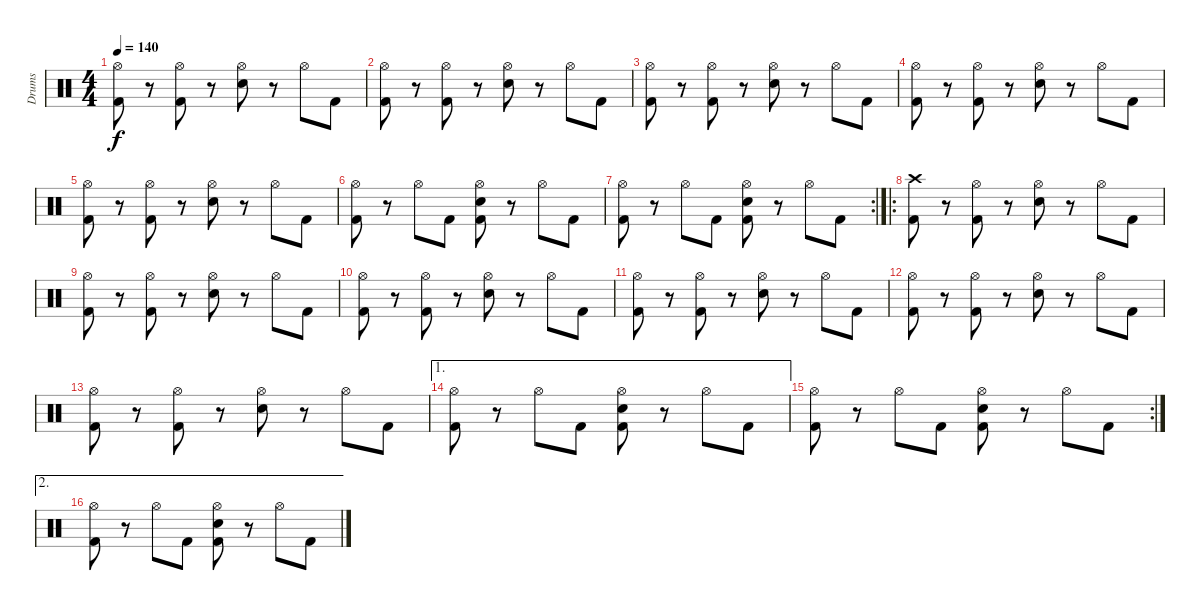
\track ("Drums" "Drums") {instrument percussion}
\staff {score}
\articulation defaults
\ts (4 4)
\tempo 140
\clef neutral
\ks c
("Hi-Hat (open)" "Kick (hit) 2").8{dy f} r.8 ("Hi-Hat (open)" "Kick (hit) 2").8 r.8 ("Hi-Hat (open)" "Snare (hit) 2").8 r.8 "Hi-Hat (open)".8 "Kick (hit) 2".8 |
("Hi-Hat (open)" "Kick (hit) 2").8 r.8 ("Hi-Hat (open)" "Kick (hit) 2").8 r.8 ("Hi-Hat (open)" "Snare (hit) 2").8 r.8 "Hi-Hat (open)".8 "Kick (hit) 2".8 |
("Hi-Hat (open)" "Kick (hit) 2").8 r.8 ("Hi-Hat (open)" "Kick (hit) 2").8 r.8 ("Hi-Hat (open)" "Snare (hit) 2").8 r.8 "Hi-Hat (open)".8 "Kick (hit) 2".8 |
("Hi-Hat (open)" "Kick (hit) 2").8 r.8 ("Hi-Hat (open)" "Kick (hit) 2").8 r.8 ("Hi-Hat (open)" "Snare (hit) 2").8 r.8 "Hi-Hat (open)".8 "Kick (hit) 2".8 |
("Hi-Hat (open)" "Kick (hit) 2").8 r.8 ("Hi-Hat (open)" "Kick (hit) 2").8 r.8 ("Hi-Hat (open)" "Snare (hit) 2").8 r.8 "Hi-Hat (open)".8 "Kick (hit) 2".8 |
("Hi-Hat (open)" "Kick (hit) 2").8 r.8 "Hi-Hat (open)".8 "Kick (hit) 2".8 ("Hi-Hat (open)" "Snare (hit) 2" "Kick (hit) 2").8 r.8 "Hi-Hat (open)".8 "Kick (hit) 2".8 |
\rc 2
("Hi-Hat (open)" "Kick (hit) 2").8 r.8 "Hi-Hat (open)".8 "Kick (hit) 2".8 ("Hi-Hat (open)" "Snare (hit) 2" "Kick (hit) 2").8 r.8 "Hi-Hat (open)".8 "Kick (hit) 2".8 |
\ro
("Crash high (hit)" "Kick (hit) 2").8 r.8 ("Hi-Hat (open)" "Kick (hit) 2").8 r.8 ("Hi-Hat (open)" "Snare (hit) 2").8 r.8 "Hi-Hat (open)".8 "Kick (hit) 2".8 |
("Hi-Hat (open)" "Kick (hit) 2").8 r.8 ("Hi-Hat (open)" "Kick (hit) 2").8 r.8 ("Hi-Hat (open)" "Snare (hit) 2").8 r.8 "Hi-Hat (open)".8 "Kick (hit) 2".8 |
("Hi-Hat (open)" "Kick (hit) 2").8 r.8 ("Hi-Hat (open)" "Kick (hit) 2").8 r.8 ("Hi-Hat (open)" "Snare (hit) 2").8 r.8 "Hi-Hat (open)".8 "Kick (hit) 2".8 |
("Hi-Hat (open)" "Kick (hit) 2").8 r.8 ("Hi-Hat (open)" "Kick (hit) 2").8 r.8 ("Hi-Hat (open)" "Snare (hit) 2").8 r.8 "Hi-Hat (open)".8 "Kick (hit) 2".8 |
("Hi-Hat (open)" "Kick (hit) 2").8 r.8 ("Hi-Hat (open)" "Kick (hit) 2").8 r.8 ("Hi-Hat (open)" "Snare (hit) 2").8 r.8 "Hi-Hat (open)".8 "Kick (hit) 2".8 |
("Hi-Hat (open)" "Kick (hit) 2").8 r.8 ("Hi-Hat (open)" "Kick (hit) 2").8 r.8 ("Hi-Hat (open)" "Snare (hit) 2").8 r.8 "Hi-Hat (open)".8 "Kick (hit) 2".8 |
\ae 1
("Hi-Hat (open)" "Kick (hit) 2").8 r.8 "Hi-Hat (open)".8 "Kick (hit) 2".8 ("Hi-Hat (open)" "Snare (hit) 2" "Kick (hit) 2").8 r.8 "Hi-Hat (open)".8 "Kick (hit) 2".8 |
\rc 2
("Hi-Hat (open)" "Kick (hit) 2").8 r.8 "Hi-Hat (open)".8 "Kick (hit) 2".8 ("Hi-Hat (open)" "Snare (hit) 2" "Kick (hit) 2").8 r.8 "Hi-Hat (open)".8 "Kick (hit) 2".8 |
\ae 2
("Hi-Hat (open)" "Kick (hit) 2").8 r.8 "Hi-Hat (open)".8 "Kick (hit) 2".8 ("Hi-Hat (open)" "Snare (hit) 2" "Kick (hit) 2").8 r.8 "Hi-Hat (open)".8 "Kick (hit) 2".8
